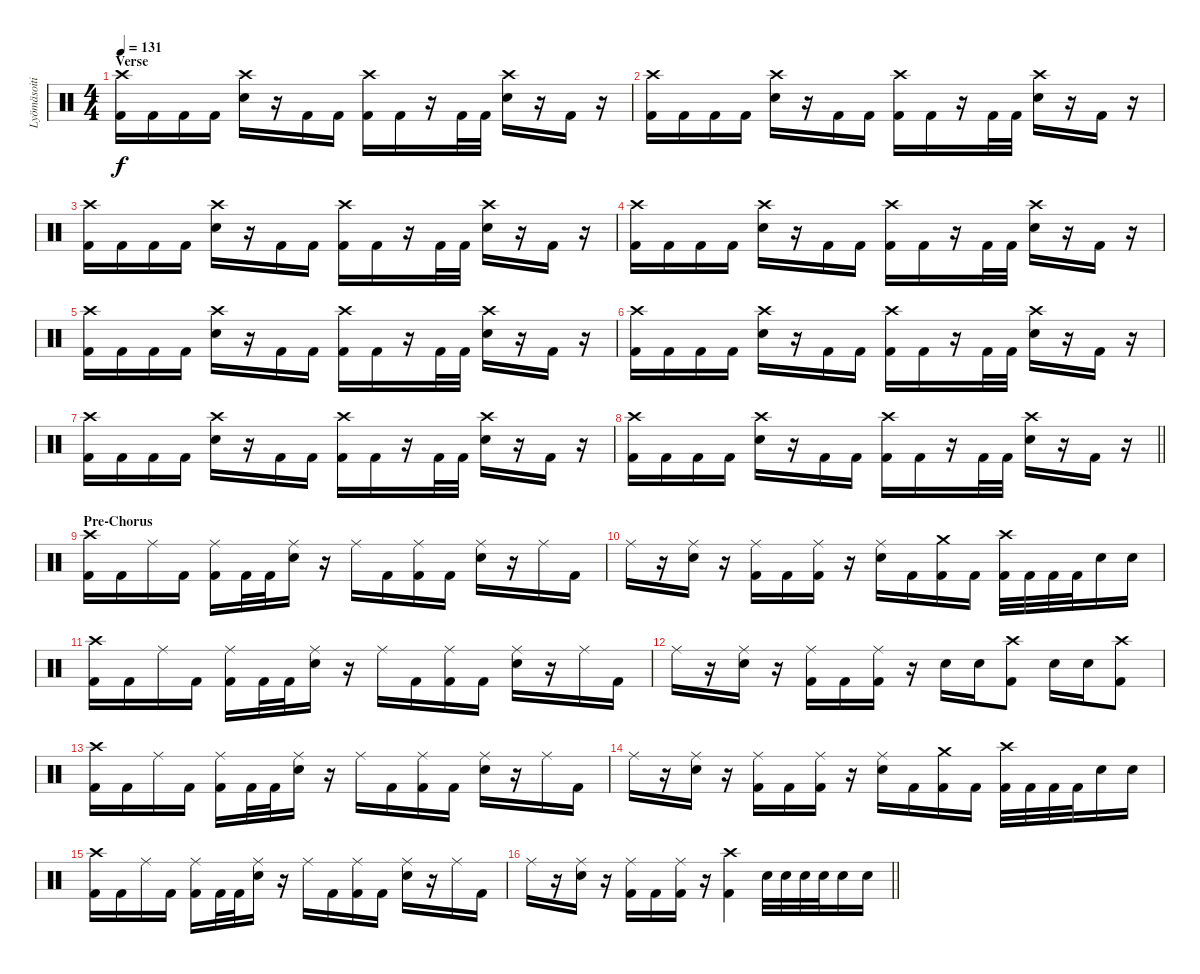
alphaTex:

\track ("Lyömäsoitin" "Lyömäsoiti") {instrument percussion}
\staff {score}
\articulation defaults
\ts (4 4)
\section ("" "Verse")
\tempo 131
\clef neutral
\ks c
("Crash high (hit)" "Kick (hit) 2").16{dy f} "Kick (hit) 2".16 "Kick (hit) 2".16 "Kick (hit) 2".16 ("Crash high (hit)" "Electric Snare (hit)").16 r.16 "Kick (hit) 2".16 "Kick (hit) 2".16 ("Crash high (hit)" "Kick (hit) 2").16 "Kick (hit) 2".16 r.16 "Kick (hit) 2".32 "Kick (hit) 2".32 ("Crash high (hit)" "Electric Snare (hit)").16 r.16 "Kick (hit) 2".16 r.16 |
("Crash high (hit)" "Kick (hit) 2").16 "Kick (hit) 2".16 "Kick (hit) 2".16 "Kick (hit) 2".16 ("Crash high (hit)" "Electric Snare (hit)").16 r.16 "Kick (hit) 2".16 "Kick (hit) 2".16 ("Crash high (hit)" "Kick (hit) 2").16 "Kick (hit) 2".16 r.16 "Kick (hit) 2".32 "Kick (hit) 2".32 ("Crash high (hit)" "Electric Snare (hit)").16 r.16 "Kick (hit) 2".16 r.16 |
("Crash high (hit)" "Kick (hit) 2").16 "Kick (hit) 2".16 "Kick (hit) 2".16 "Kick (hit) 2".16 ("Crash high (hit)" "Electric Snare (hit)").16 r.16 "Kick (hit) 2".16 "Kick (hit) 2".16 ("Crash high (hit)" "Kick (hit) 2").16 "Kick (hit) 2".16 r.16 "Kick (hit) 2".32 "Kick (hit) 2".32 ("Crash high (hit)" "Electric Snare (hit)").16 r.16 "Kick (hit) 2".16 r.16 |
("Crash high (hit)" "Kick (hit) 2").16 "Kick (hit) 2".16 "Kick (hit) 2".16 "Kick (hit) 2".16 ("Crash high (hit)" "Electric Snare (hit)").16 r.16 "Kick (hit) 2".16 "Kick (hit) 2".16 ("Crash high (hit)" "Kick (hit) 2").16 "Kick (hit) 2".16 r.16 "Kick (hit) 2".32 "Kick (hit) 2".32 ("Crash high (hit)" "Electric Snare (hit)").16 r.16 "Kick (hit) 2".16 r.16 |
("Crash high (hit)" "Kick (hit) 2").16 "Kick (hit) 2".16 "Kick (hit) 2".16 "Kick (hit) 2".16 ("Crash high (hit)" "Electric Snare (hit)").16 r.16 "Kick (hit) 2".16 "Kick (hit) 2".16 ("Crash high (hit)" "Kick (hit) 2").16 "Kick (hit) 2".16 r.16 "Kick (hit) 2".32 "Kick (hit) 2".32 ("Crash high (hit)" "Electric Snare (hit)").16 r.16 "Kick (hit) 2".16 r.16 |
("Crash high (hit)" "Kick (hit) 2").16 "Kick (hit) 2".16 "Kick (hit) 2".16 "Kick (hit) 2".16 ("Crash high (hit)" "Electric Snare (hit)").16 r.16 "Kick (hit) 2".16 "Kick (hit) 2".16 ("Crash high (hit)" "Kick (hit) 2").16 "Kick (hit) 2".16 r.16 "Kick (hit) 2".32 "Kick (hit) 2".32 ("Crash high (hit)" "Electric Snare (hit)").16 r.16 "Kick (hit) 2".16 r.16 |
("Crash high (hit)" "Kick (hit) 2").16 "Kick (hit) 2".16 "Kick (hit) 2".16 "Kick (hit) 2".16 ("Crash high (hit)" "Electric Snare (hit)").16 r.16 "Kick (hit) 2".16 "Kick (hit) 2".16 ("Crash high (hit)" "Kick (hit) 2").16 "Kick (hit) 2".16 r.16 "Kick (hit) 2".32 "Kick (hit) 2".32 ("Crash high (hit)" "Electric Snare (hit)").16 r.16 "Kick (hit) 2".16 r.16 |
\barLineRight lightlight
("Crash high (hit)" "Kick (hit) 2").16 "Kick (hit) 2".16 "Kick (hit) 2".16 "Kick (hit) 2".16 ("Crash high (hit)" "Electric Snare (hit)").16 r.16 "Kick (hit) 2".16 "Kick (hit) 2".16 ("Crash high (hit)" "Kick (hit) 2").16 "Kick (hit) 2".16 r.16 "Kick (hit) 2".32 "Kick (hit) 2".32 ("Crash high (hit)" "Electric Snare (hit)").16 r.16 "Kick (hit) 2".16 r.16 |
\section ("" "Pre-Chorus")
("Crash high (hit)" "Kick (hit) 2").16 "Kick (hit) 2".16 "Ride (middle)".16 "Kick (hit) 2".16 ("Ride (middle)" "Kick (hit) 2").16 "Kick (hit) 2".32 "Kick (hit) 2".32 ("Ride (middle)" "Electric Snare (hit)").16 r.16 "Ride (middle)".16 "Kick (hit) 2".16 ("Ride (middle)" "Kick (hit) 2").16 "Kick (hit) 2".16 ("Ride (middle)" "Electric Snare (hit)").16 r.16 "Ride (middle)".16 "Kick (hit) 2".16 |
"Ride (middle)".16 r.16 ("Ride (middle)" "Electric Snare (hit)").16 r.16 ("Ride (middle)" "Kick (hit) 2").16 "Kick (hit) 2".16 ("Ride (middle)" "Kick (hit) 2").16 r.16 ("Ride (middle)" "Electric Snare (hit)").16 "Kick (hit) 2".16 ("Crash medium (hit)" "Kick (hit) 2").16 "Kick (hit) 2".16 ("Crash high (hit)" "Kick (hit) 2").32 "Kick (hit) 2".32 "Kick (hit) 2".32 "Kick (hit) 2".32 "Electric Snare (hit)".16 "Electric Snare (hit)".16 |
("Crash high (hit)" "Kick (hit) 2").16 "Kick (hit) 2".16 "Ride (middle)".16 "Kick (hit) 2".16 ("Ride (middle)" "Kick (hit) 2").16 "Kick (hit) 2".32 "Kick (hit) 2".32 ("Ride (middle)" "Electric Snare (hit)").16 r.16 "Ride (middle)".16 "Kick (hit) 2".16 ("Ride (middle)" "Kick (hit) 2").16 "Kick (hit) 2".16 ("Ride (middle)" "Electric Snare (hit)").16 r.16 "Ride (middle)".16 "Kick (hit) 2".16 |
"Ride (middle)".16 r.16 ("Ride (middle)" "Electric Snare (hit)").16 r.16 ("Ride (middle)" "Kick (hit) 2").16 "Kick (hit) 2".16 ("Ride (middle)" "Kick (hit) 2").16 r.16 "Electric Snare (hit)".16 "Electric Snare (hit)".16 ("Crash high (hit)" "Kick (hit) 2").8 "Electric Snare (hit)".16 "Electric Snare (hit)".16 ("Crash high (hit)" "Kick (hit) 2").8 |
("Crash high (hit)" "Kick (hit) 2").16 "Kick (hit) 2".16 "Ride (middle)".16 "Kick (hit) 2".16 ("Ride (middle)" "Kick (hit) 2").16 "Kick (hit) 2".32 "Kick (hit) 2".32 ("Ride (middle)" "Electric Snare (hit)").16 r.16 "Ride (middle)".16 "Kick (hit) 2".16 ("Ride (middle)" "Kick (hit) 2").16 "Kick (hit) 2".16 ("Ride (middle)" "Electric Snare (hit)").16 r.16 "Ride (middle)".16 "Kick (hit) 2".16 |
"Ride (middle)".16 r.16 ("Ride (middle)" "Electric Snare (hit)").16 r.16 ("Ride (middle)" "Kick (hit) 2").16 "Kick (hit) 2".16 ("Ride (middle)" "Kick (hit) 2").16 r.16 ("Ride (middle)" "Electric Snare (hit)").16 "Kick (hit) 2".16 ("Crash medium (hit)" "Kick (hit) 2").16 "Kick (hit) 2".16 ("Crash high (hit)" "Kick (hit) 2").32 "Kick (hit) 2".32 "Kick (hit) 2".32 "Kick (hit) 2".32 "Electric Snare (hit)".16 "Electric Snare (hit)".16 |
("Crash high (hit)" "Kick (hit) 2").16 "Kick (hit) 2".16 "Ride (middle)".16 "Kick (hit) 2".16 ("Ride (middle)" "Kick (hit) 2").16 "Kick (hit) 2".32 "Kick (hit) 2".32 ("Ride (middle)" "Electric Snare (hit)").16 r.16 "Ride (middle)".16 "Kick (hit) 2".16 ("Ride (middle)" "Kick (hit) 2").16 "Kick (hit) 2".16 ("Ride (middle)" "Electric Snare (hit)").16 r.16 "Ride (middle)".16 "Kick (hit) 2".16 |
\barLineRight lightlight "Ride (middle)".16
r.16 ("Ride (middle)" "Electric Snare (hit)").16 r.16 ("Ride (middle)" "Kick (hit) 2").16 "Kick (hit) 2".16 ("Ride (middle)" "Kick (hit) 2").16 r.16 ("Crash high (hit)" "Kick (hit) 2").4 "Electric Snare (hit)".32 "Electric Snare (hit)".32 "Electric Snare (hit)".32 "Electric Snare (hit)".32 "Electric Snare (hit)".16 "Electric Snare (hit)".16
